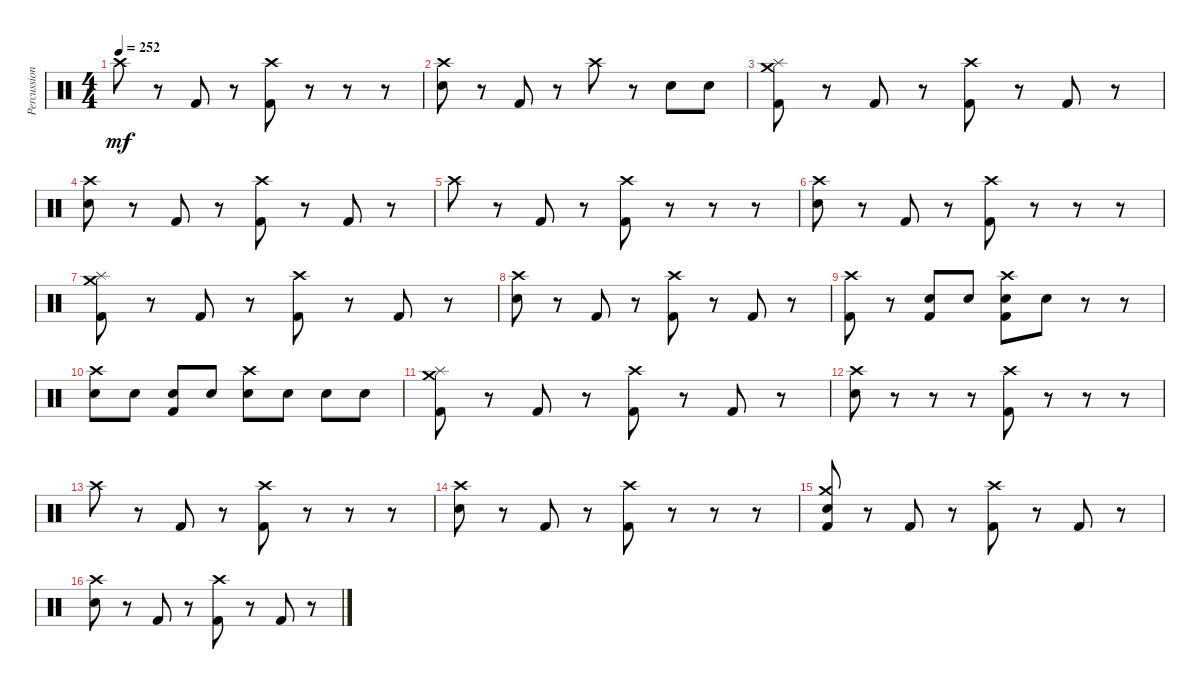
\track ("Percussion" "Percussion") {instrument percussion}
\staff {score}
\articulation defaults
\ts (4 4)
\tempo 252
\clef neutral
\ks c "Crash high (hit)".8{dy mf}
r.8 "Kick (hit) 2".8 r.8 ("Kick (hit) 2" "Crash high (hit)").8 r.8 r.8 r.8 |
("Crash high (hit)" "Electric Snare (hit)").8 r.8 "Kick (hit) 2".8 r.8 "Crash high (hit)".8 r.8 "Electric Snare (hit)".8 "Electric Snare (hit)".8 |
("Kick (hit) 2" "Crash medium (hit)" "Splash (hit)").8 r.8 "Kick (hit) 2".8 r.8 ("Kick (hit) 2" "Crash high (hit)").8 r.8 "Kick (hit) 2".8 r.8 |
("Electric Snare (hit)" "Crash high (hit)").8 r.8 "Kick (hit) 2".8 r.8 ("Kick (hit) 2" "Crash high (hit)").8 r.8 "Kick (hit) 2".8 r.8 |
"Crash high (hit)".8 r.8 "Kick (hit) 2".8 r.8 ("Kick (hit) 2" "Crash high (hit)").8 r.8 r.8 r.8 |
("Electric Snare (hit)" "Crash high (hit)").8 r.8 "Kick (hit) 2".8 r.8 ("Kick (hit) 2" "Crash high (hit)").8 r.8 r.8 r.8 |
("Splash (hit)" "Crash medium (hit)" "Kick (hit) 2").8 r.8 "Kick (hit) 2".8 r.8 ("Kick (hit) 2" "Crash high (hit)").8 r.8 "Kick (hit) 2".8 r.8 |
("Electric Snare (hit)" "Crash high (hit)").8 r.8 "Kick (hit) 2".8 r.8 ("Kick (hit) 2" "Crash high (hit)").8 r.8 "Kick (hit) 2".8 r.8 |
("Crash high (hit)" "Kick (hit) 2").8 r.8 ("Kick (hit) 2" "Electric Snare (hit)").8 "Electric Snare (hit)".8 ("Kick (hit) 2" "Crash high (hit)" "Electric Snare (hit)").8 "Electric Snare (hit)".8 r.8 r.8 |
("Electric Snare (hit)" "Crash high (hit)").8 "Electric Snare (hit)".8 ("Kick (hit) 2" "Electric Snare (hit)").8 "Electric Snare (hit)".8 ("Electric Snare (hit)" "Crash high (hit)").8 "Electric Snare (hit)".8 "Electric Snare (hit)".8 "Snare (hit) 2".8 |
("Kick (hit) 2" "Splash (hit)" "Crash medium (hit)").8 r.8 "Kick (hit) 2".8 r.8 ("Kick (hit) 2" "Crash high (hit)").8 r.8 "Kick (hit) 2".8 r.8 |
("Electric Snare (hit)" "Crash high (hit)").8 r.8 r.8 r.8 ("Kick (hit) 2" "Crash high (hit)").8 r.8 r.8 r.8 |
"Crash high (hit)".8 r.8 "Kick (hit) 2".8 r.8 ("Kick (hit) 2" "Crash high (hit)").8 r.8 r.8 r.8 |
("Electric Snare (hit)" "Crash high (hit)").8 r.8 "Kick (hit) 2".8 r.8 ("Kick (hit) 2" "Crash high (hit)").8 r.8 r.8 r.8 |
("Kick (hit) 2" "Crash medium (hit)" "Snare (hit)").8 r.8 "Kick (hit) 2".8 r.8 ("Kick (hit) 2" "Crash high (hit)").8 r.8 "Kick (hit) 2".8 r.8 |
("Electric Snare (hit)" "Crash high (hit)").8 r.8 "Kick (hit) 2".8 r.8 ("Kick (hit) 2" "Crash high (hit)").8 r.8 "Kick (hit) 2".8 r.8
